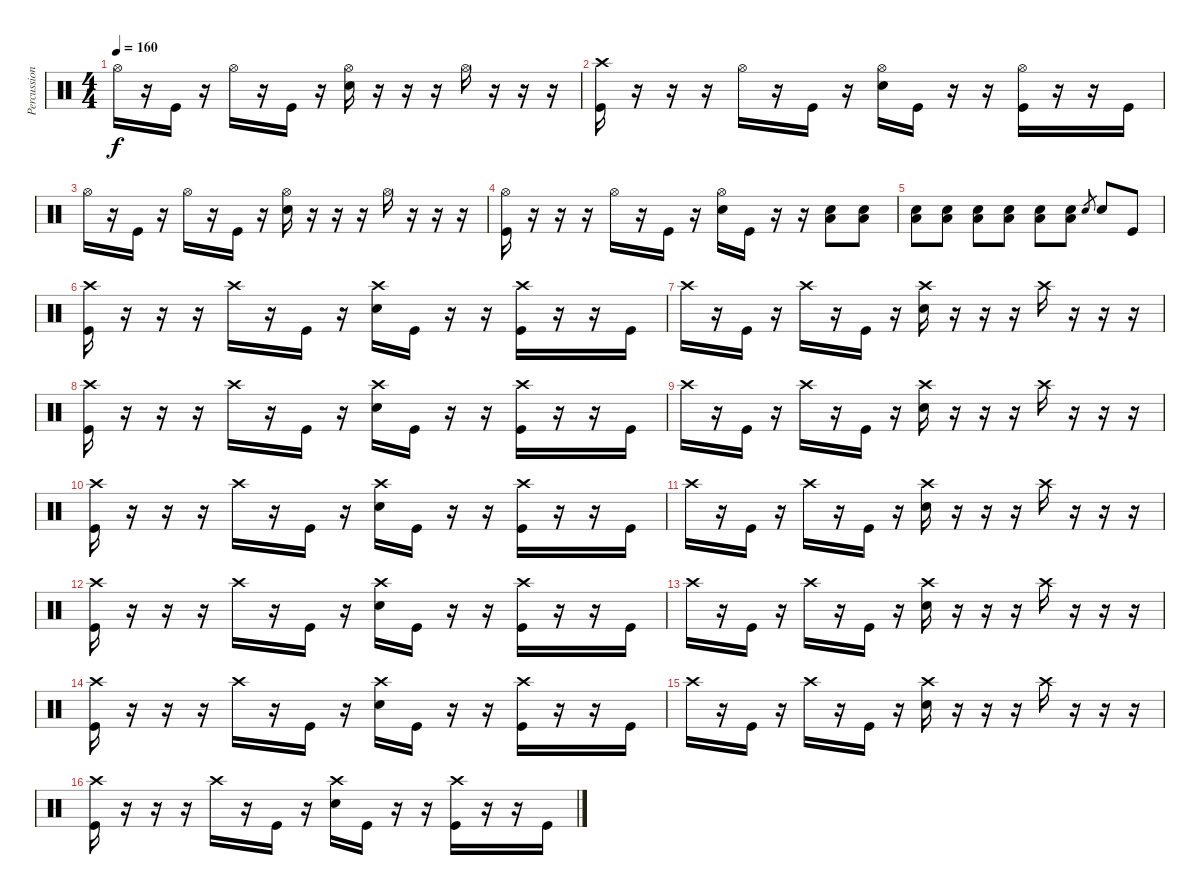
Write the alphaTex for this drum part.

\track ("Percussion" "Percussion") {instrument percussion}
\staff {score}
\articulation defaults
\ts (4 4)
\tempo 160
\clef neutral
\ks c "Hi-Hat (open)".16{dy f}
r.16 "Kick (hit)".16 r.16 "Hi-Hat (open)".16 r.16 "Kick (hit)".16 r.16 ("Hi-Hat (open)" "Snare (hit) 2").16 r.16 r.16 r.16 "Hi-Hat (open)".16 r.16 r.16 r.16 |
("Kick (hit)" "Crash high (hit)").16 r.16 r.16 r.16 "Hi-Hat (open)".16 r.16 "Kick (hit)".16 r.16 ("Hi-Hat (open)" "Snare (hit) 2").16 "Kick (hit)".16 r.16 r.16 ("Hi-Hat (open)" "Kick (hit)").16 r.16 r.16 "Kick (hit)".16 |
"Hi-Hat (open)".16 r.16 "Kick (hit)".16 r.16 "Hi-Hat (open)".16 r.16 "Kick (hit)".16 r.16 ("Hi-Hat (open)" "Snare (hit) 2").16 r.16 r.16 r.16 "Hi-Hat (open)".16 r.16 r.16 r.16 |
("Kick (hit)" "Hi-Hat (open)").16 r.16 r.16 r.16 "Hi-Hat (open)".16 r.16 "Kick (hit)".16 r.16 ("Hi-Hat (open)" "Snare (hit) 2").16 "Kick (hit)".16 r.16 r.16 ("Low Floor Tom (hit)" "Snare (hit) 2").8 ("Low Floor Tom (hit)" "Snare (hit) 2").8 |
("Low Floor Tom (hit)" "Snare (hit) 2").8 ("Low Floor Tom (hit)" "Snare (hit) 2").8 ("Low Floor Tom (hit)" "Snare (hit) 2").8 ("Low Floor Tom (hit)" "Snare (hit) 2").8 ("Low Floor Tom (hit)" "Snare (hit) 2").8 ("Low Floor Tom (hit)" "Snare (hit) 2").8 "Snare (hit) 2".8{gr} "Snare (hit) 2".8 "Kick (hit)".8 |
("Kick (hit)" "Crash high (hit)").16 r.16 r.16 r.16 "Crash high (hit)".16 r.16 "Kick (hit)".16 r.16 ("Crash high (hit)" "Snare (hit) 2").16 "Kick (hit)".16 r.16 r.16 ("Crash high (hit)" "Kick (hit)").16 r.16 r.16 "Kick (hit)".16 |
"Crash high (hit)".16 r.16 "Kick (hit)".16 r.16 "Crash high (hit)".16 r.16 "Kick (hit)".16 r.16 ("Crash high (hit)" "Snare (hit) 2").16 r.16 r.16 r.16 "Crash high (hit)".16 r.16 r.16 r.16 |
("Kick (hit)" "Crash high (hit)").16 r.16 r.16 r.16 "Crash high (hit)".16 r.16 "Kick (hit)".16 r.16 ("Crash high (hit)" "Snare (hit) 2").16 "Kick (hit)".16 r.16 r.16 ("Crash high (hit)" "Kick (hit)").16 r.16 r.16 "Kick (hit)".16 |
"Crash high (hit)".16 r.16 "Kick (hit)".16 r.16 "Crash high (hit)".16 r.16 "Kick (hit)".16 r.16 ("Crash high (hit)" "Snare (hit) 2").16 r.16 r.16 r.16 "Crash high (hit)".16 r.16 r.16 r.16 |
("Kick (hit)" "Crash high (hit)").16 r.16 r.16 r.16 "Crash high (hit)".16 r.16 "Kick (hit)".16 r.16 ("Crash high (hit)" "Snare (hit) 2").16 "Kick (hit)".16 r.16 r.16 ("Crash high (hit)" "Kick (hit)").16 r.16 r.16 "Kick (hit)".16 |
"Crash high (hit)".16 r.16 "Kick (hit)".16 r.16 "Crash high (hit)".16 r.16 "Kick (hit)".16 r.16 ("Crash high (hit)" "Snare (hit) 2").16 r.16 r.16 r.16 "Crash high (hit)".16 r.16 r.16 r.16 |
("Kick (hit)" "Crash high (hit)").16 r.16 r.16 r.16 "Crash high (hit)".16 r.16 "Kick (hit)".16 r.16 ("Crash high (hit)" "Snare (hit) 2").16 "Kick (hit)".16 r.16 r.16 ("Crash high (hit)" "Kick (hit)").16 r.16 r.16 "Kick (hit)".16 |
"Crash high (hit)".16 r.16 "Kick (hit)".16 r.16 "Crash high (hit)".16 r.16 "Kick (hit)".16 r.16 ("Crash high (hit)" "Snare (hit) 2").16 r.16 r.16 r.16 "Crash high (hit)".16 r.16 r.16 r.16 |
("Kick (hit)" "Crash high (hit)").16 r.16 r.16 r.16 "Crash high (hit)".16 r.16 "Kick (hit)".16 r.16 ("Crash high (hit)" "Snare (hit) 2").16 "Kick (hit)".16 r.16 r.16 ("Crash high (hit)" "Kick (hit)").16 r.16 r.16 "Kick (hit)".16 |
"Crash high (hit)".16 r.16 "Kick (hit)".16 r.16 "Crash high (hit)".16 r.16 "Kick (hit)".16 r.16 ("Crash high (hit)" "Snare (hit) 2").16 r.16 r.16 r.16 "Crash high (hit)".16 r.16 r.16 r.16 |
("Kick (hit)" "Crash high (hit)").16 r.16 r.16 r.16 "Crash high (hit)".16 r.16 "Kick (hit)".16 r.16 ("Crash high (hit)" "Snare (hit) 2").16 "Kick (hit)".16 r.16 r.16 ("Crash high (hit)" "Kick (hit)").16 r.16 r.16 "Kick (hit)".16
